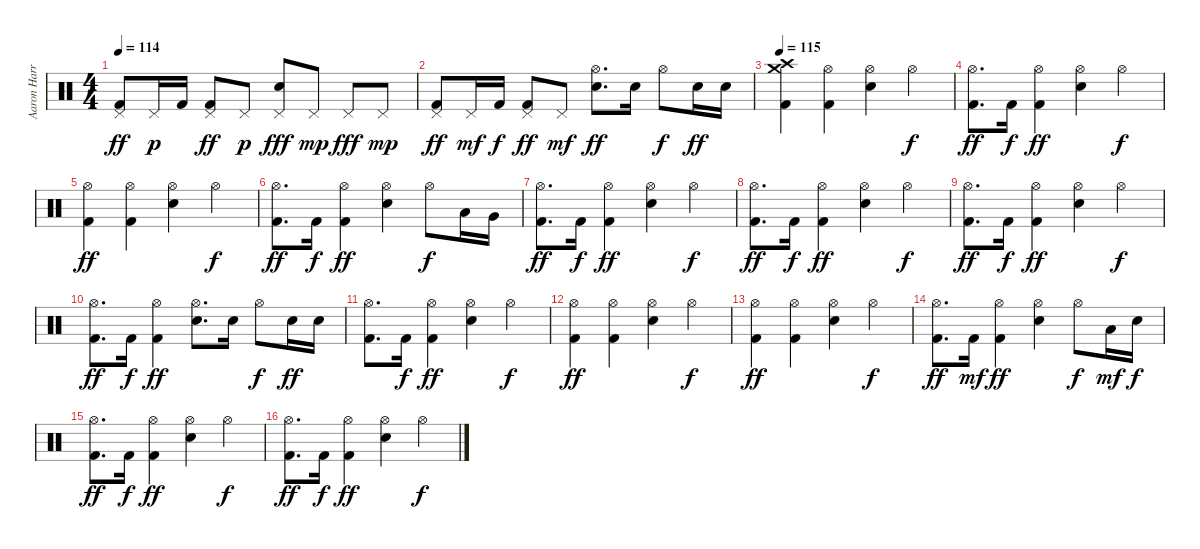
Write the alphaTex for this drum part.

\track ("Aaron Harris" "Aaron Harr") {instrument percussion}
\staff {score}
\articulation defaults
\ts (4 4)
\tempo 114
\clef neutral
\ks c
("Pedal Hi-Hat (hit)" "Kick (hit) 2").8{dy ff} "Pedal Hi-Hat (hit)".16{dy p} "Kick (hit) 2".16 ("Pedal Hi-Hat (hit)" "Kick (hit) 2").8{dy ff} "Pedal Hi-Hat (hit)".8{dy p} ("Pedal Hi-Hat (hit)" "Electric Snare (hit)").8{dy fff} "Pedal Hi-Hat (hit)".8{dy mp} "Pedal Hi-Hat (hit)".8{dy fff} "Pedal Hi-Hat (hit)".8{dy mp} |
("Pedal Hi-Hat (hit)" "Kick (hit) 2").8{dy ff} "Pedal Hi-Hat (hit)".16{dy mf} "Kick (hit) 2".16{dy f} ("Pedal Hi-Hat (hit)" "Kick (hit) 2").8{dy ff} "Pedal Hi-Hat (hit)".8{dy mf} ("Hi-Hat (open)" "Electric Snare (hit)").8{d dy ff} "Electric Snare (hit)".16 "Hi-Hat (open)".8{dy f} "Electric Snare (hit)".16{dy ff} "Electric Snare (hit)".16 |
\tempo 115
("Crash medium (hit)" "Crash high (hit)" "Kick (hit) 2").4 ("Hi-Hat (open)" "Kick (hit) 2").4 ("Hi-Hat (open)" "Electric Snare (hit)").4 "Hi-Hat (open)".4{dy f} |
("Hi-Hat (open)" "Kick (hit) 2").8{d dy ff} "Kick (hit) 2".16{dy f} ("Hi-Hat (open)" "Kick (hit) 2").4{dy ff} ("Hi-Hat (open)" "Electric Snare (hit)").4 "Hi-Hat (open)".4{dy f} |
("Hi-Hat (open)" "Kick (hit) 2").4{dy ff} ("Hi-Hat (open)" "Kick (hit) 2").4 ("Hi-Hat (open)" "Electric Snare (hit)").4 "Hi-Hat (open)".4{dy f} |
("Hi-Hat (open)" "Kick (hit) 2").8{d dy ff} "Kick (hit) 2".16{dy f} ("Hi-Hat (open)" "Kick (hit) 2").4{dy ff} ("Hi-Hat (open)" "Electric Snare (hit)").4 "Hi-Hat (open)".8{dy f} "Low Tom (hit)".16 "Very Low Tom (hit)".16 |
("Hi-Hat (open)" "Kick (hit) 2").8{d dy ff} "Kick (hit) 2".16{dy f} ("Hi-Hat (open)" "Kick (hit) 2").4{dy ff} ("Hi-Hat (open)" "Electric Snare (hit)").4 "Hi-Hat (open)".4{dy f} |
("Hi-Hat (open)" "Kick (hit) 2").8{d dy ff} "Kick (hit) 2".16{dy f} ("Hi-Hat (open)" "Kick (hit) 2").4{dy ff} ("Hi-Hat (open)" "Electric Snare (hit)").4 "Hi-Hat (open)".4{dy f} |
("Hi-Hat (open)" "Kick (hit) 2").8{d dy ff} "Kick (hit) 2".16{dy f} ("Hi-Hat (open)" "Kick (hit) 2").4{dy ff} ("Hi-Hat (open)" "Electric Snare (hit)").4 "Hi-Hat (open)".4{dy f} |
("Hi-Hat (open)" "Kick (hit) 2").8{d dy ff} "Kick (hit) 2".16{dy f} ("Hi-Hat (open)" "Kick (hit) 2").4{dy ff} ("Hi-Hat (open)" "Electric Snare (hit)").8{d} "Electric Snare (hit)".16 "Hi-Hat (open)".8{dy f} "Electric Snare (hit)".16{dy ff} "Electric Snare (hit)".16 |
("Hi-Hat (open)" "Kick (hit) 2").8{d} "Kick (hit) 2".16{dy f} ("Hi-Hat (open)" "Kick (hit) 2").4{dy ff} ("Hi-Hat (open)" "Electric Snare (hit)").4 "Hi-Hat (open)".4{dy f} |
("Hi-Hat (open)" "Kick (hit) 2").4{dy ff} ("Hi-Hat (open)" "Kick (hit) 2").4 ("Hi-Hat (open)" "Electric Snare (hit)").4 "Hi-Hat (open)".4{dy f} |
("Hi-Hat (open)" "Kick (hit) 2").4{dy ff} ("Hi-Hat (open)" "Kick (hit) 2").4 ("Hi-Hat (open)" "Electric Snare (hit)").4 "Hi-Hat (open)".4{dy f} |
("Hi-Hat (open)" "Kick (hit) 2").8{d dy ff} "Kick (hit) 2".16{dy mf} ("Hi-Hat (open)" "Kick (hit) 2").4{dy ff} ("Hi-Hat (open)" "Electric Snare (hit)").4 "Hi-Hat (open)".8{dy f} "Low Tom (hit)".16{dy mf} "Electric Snare (hit)".16{dy f} |
("Hi-Hat (open)" "Kick (hit) 2").8{d dy ff} "Kick (hit) 2".16{dy f} ("Hi-Hat (open)" "Kick (hit) 2").4{dy ff} ("Hi-Hat (open)" "Electric Snare (hit)").4 "Hi-Hat (open)".4{dy f} |
("Hi-Hat (open)" "Kick (hit) 2").8{d dy ff} "Kick (hit) 2".16{dy f} ("Hi-Hat (open)" "Kick (hit) 2").4{dy ff} ("Hi-Hat (open)" "Electric Snare (hit)").4 "Hi-Hat (open)".4{dy f}
